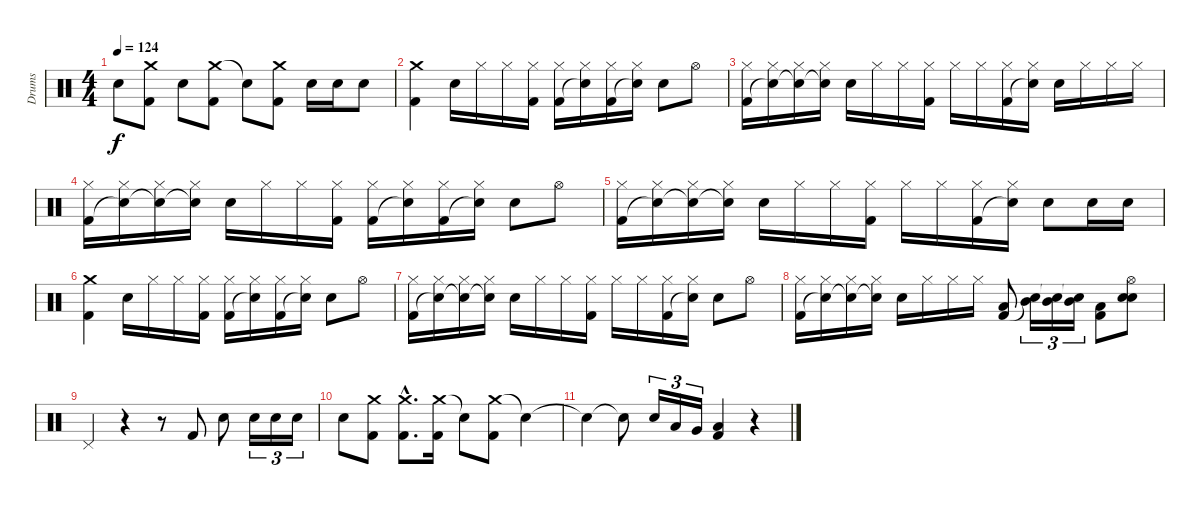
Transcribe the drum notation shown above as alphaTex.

\track ("Drums" "Drums") {instrument percussion}
\staff {score}
\articulation defaults
\ts (4 4)
\tempo 124
\clef neutral
\ks aminor "Snare (hit)"{t}.8{dy f}
("Crash medium (hit)" "Kick (hit) 2").8 "Electric Snare (hit)".8 ("Crash medium (hit)" "Kick (hit) 2").8 "Snare (hit)"{t}.8 ("Crash medium (hit)" "Kick (hit) 2").8 "Electric Snare (hit)".16 "Electric Snare (hit)".16 "Electric Snare (hit)".8 |
("Crash medium (hit)" "Kick (hit) 2").4 "Electric Snare (hit)".16 "Hi-Hat (closed)".16 "Hi-Hat (closed)".16 ("Hi-Hat (closed)" "Kick (hit) 2").16 ("Hi-Hat (closed)" "Kick (hit) 2").16 ("Hi-Hat (closed)" "Snare (hit)"{t}).16 ("Hi-Hat (closed)" "Kick (hit) 2").16 ("Hi-Hat (closed)" "Snare (hit)"{t}).16 "Electric Snare (hit)".8 "Hi-Hat (open)".8 |
("Hi-Hat (closed)" "Kick (hit) 2").16 ("Hi-Hat (closed)" "Snare (hit)"{t}).16 ("Hi-Hat (closed)" "Snare (hit)"{t}).16 ("Hi-Hat (closed)" "Snare (hit)"{t}).16 "Electric Snare (hit)".16 "Hi-Hat (closed)".16 "Hi-Hat (closed)".16 ("Hi-Hat (closed)" "Kick (hit) 2").16 "Hi-Hat (closed)".16 "Hi-Hat (closed)".16 ("Hi-Hat (closed)" "Kick (hit) 2").16 ("Hi-Hat (closed)" "Snare (hit)"{t}).16 "Electric Snare (hit)".16 "Hi-Hat (closed)".16 "Hi-Hat (closed)".16 "Hi-Hat (closed)".16 |
("Hi-Hat (closed)" "Kick (hit) 2").16 ("Hi-Hat (closed)" "Snare (hit)"{t}).16 ("Hi-Hat (closed)" "Snare (hit)"{t}).16 ("Hi-Hat (closed)" "Snare (hit)"{t}).16 "Electric Snare (hit)".16 "Hi-Hat (closed)".16 "Hi-Hat (closed)".16 ("Hi-Hat (closed)" "Kick (hit) 2").16 ("Hi-Hat (closed)" "Kick (hit) 2").16 ("Hi-Hat (closed)" "Snare (hit)"{t}).16 ("Hi-Hat (closed)" "Kick (hit) 2").16 ("Hi-Hat (closed)" "Snare (hit)"{t}).16 "Electric Snare (hit)".8 "Hi-Hat (open)".8 |
("Hi-Hat (closed)" "Kick (hit) 2").16 ("Hi-Hat (closed)" "Snare (hit)"{t}).16 ("Hi-Hat (closed)" "Snare (hit)"{t}).16 ("Hi-Hat (closed)" "Snare (hit)"{t}).16 "Electric Snare (hit)".16 "Hi-Hat (closed)".16 "Hi-Hat (closed)".16 ("Hi-Hat (closed)" "Kick (hit) 2").16 "Hi-Hat (closed)".16 "Hi-Hat (closed)".16 ("Hi-Hat (closed)" "Kick (hit) 2").16 ("Hi-Hat (closed)" "Snare (hit)"{t}).16 "Electric Snare (hit)".8 "Electric Snare (hit)".16 "Electric Snare (hit)".16 |
("Crash medium (hit)" "Kick (hit) 2").4 "Electric Snare (hit)".16 "Hi-Hat (closed)".16 "Hi-Hat (closed)".16 ("Hi-Hat (closed)" "Kick (hit) 2").16 ("Hi-Hat (closed)" "Kick (hit) 2").16 ("Hi-Hat (closed)" "Snare (hit)"{t}).16 ("Hi-Hat (closed)" "Kick (hit) 2").16 ("Hi-Hat (closed)" "Snare (hit)"{t}).16 "Electric Snare (hit)".8 "Hi-Hat (open)".8 |
("Hi-Hat (closed)" "Kick (hit) 2").16 ("Hi-Hat (closed)" "Snare (hit)"{t}).16 ("Hi-Hat (closed)" "Snare (hit)"{t}).16 ("Hi-Hat (closed)" "Snare (hit)"{t}).16 "Electric Snare (hit)".16 "Hi-Hat (closed)".16 "Hi-Hat (closed)".16 ("Hi-Hat (closed)" "Kick (hit) 2").16 "Hi-Hat (closed)".16 "Hi-Hat (closed)".16 ("Hi-Hat (closed)" "Kick (hit) 2").16 ("Hi-Hat (closed)" "Snare (hit)"{t}).16 "Electric Snare (hit)".8 "Hi-Hat (open)".8 |
("Hi-Hat (closed)" "Kick (hit) 2").16 ("Hi-Hat (closed)" "Snare (hit)"{t}).16 ("Hi-Hat (closed)" "Snare (hit)"{t}).16 ("Hi-Hat (closed)" "Snare (hit)"{t}).16 "Electric Snare (hit)".16 "Hi-Hat (closed)".16 "Hi-Hat (closed)".16 "Hi-Hat (closed)".16 ("Low Tom (hit)" "Kick (hit) 2").8 ("Mid Tom (hit)" "Snare (hit)"{t}).16{tu (3 2)} ("Mid Tom (hit)" "Snare (hit)"{t}).16{tu (3 2)} ("Mid Tom (hit)" "Snare (hit)"{t}).16{tu (3 2)} ("Low Tom (hit)" "Kick (hit) 2").8 ("Hi-Hat (open)" "Electric Snare (hit)" "Snare (hit)").8 |
"Pedal Hi-Hat (hit)".4 r.4 r.8 "Kick (hit) 2".8 "Electric Snare (hit)".8 "Electric Snare (hit)".16{tu (3 2)} "Electric Snare (hit)".16{tu (3 2)} "Electric Snare (hit)".16{tu (3 2)} |
"Electric Snare (hit)".8 ("Crash medium (hit)" "Kick (hit) 2").8 ("Crash medium (hit)"{hac} "Kick (hit) 2"{hac}).8{d} ("Crash medium (hit)" "Kick (hit) 2").16 "Snare (hit)"{t}.8 ("Crash medium (hit)" "Kick (hit) 2").8 "Snare (hit)"{t}.4 |
"Snare (hit)"{t}.4 "Snare (hit)"{t}.8 "Electric Snare (hit)".16{tu (3 2)} "Low Tom (hit)".16{tu (3 2)} "Very Low Tom (hit)".16{tu (3 2)} ("Low Floor Tom (hit)" "Kick (hit) 2").4 r.4
